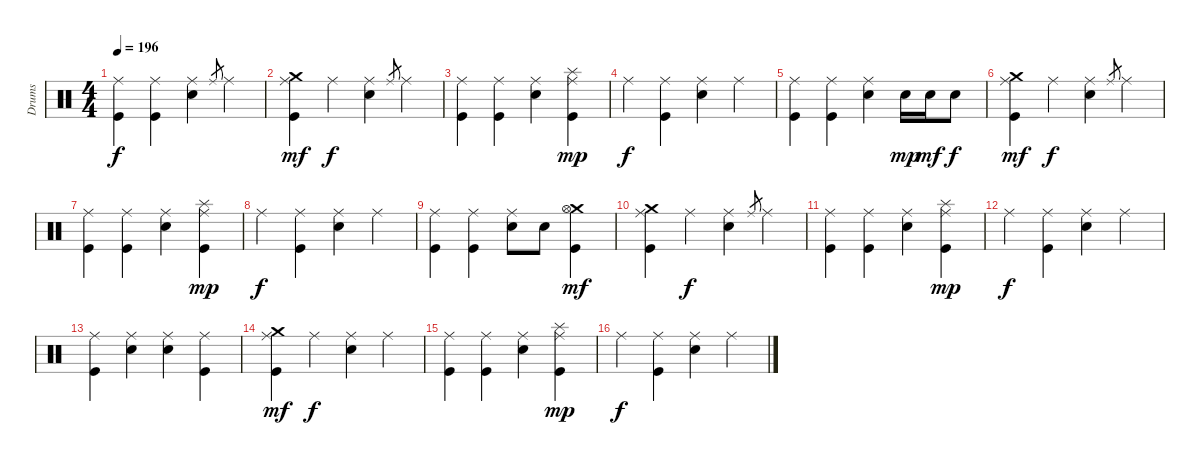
\track ("Drums" "Drums") {instrument percussion}
\staff {score}
\articulation defaults
\ts (4 4)
\tempo 196
\clef neutral
\ks c
("Ride (middle)" "Kick (hit)").4{dy f} ("Ride (middle)" "Kick (hit)").4 ("Ride (middle)" "Electric Snare (hit)").4 "Ride (middle)".8{gr} "Ride (middle)".4 |
("Crash medium (hit)" "Ride (middle)" "Kick (hit)").4{dy mf} "Ride (middle)".4{dy f} ("Ride (middle)" "Electric Snare (hit)").4 "Ride (middle)".8{gr} "Ride (middle)".4 |
("Ride (middle)" "Kick (hit)").4 ("Ride (middle)" "Kick (hit)").4 ("Ride (middle)" "Electric Snare (hit)").4 ("Splash (hit)" "Ride (middle)" "Kick (hit)").4{dy mp} |
"Ride (middle)".4{dy f} ("Ride (middle)" "Kick (hit)").4 ("Ride (middle)" "Electric Snare (hit)").4 "Ride (middle)".4 |
("Ride (middle)" "Kick (hit)").4 ("Ride (middle)" "Kick (hit)").4 ("Ride (middle)" "Electric Snare (hit)").4 "Electric Snare (hit)".16{dy mp} "Electric Snare (hit)".16{dy mf} "Electric Snare (hit)".8{dy f} |
("Crash medium (hit)" "Ride (middle)" "Kick (hit)").4{dy mf} "Ride (middle)".4{dy f} ("Ride (middle)" "Electric Snare (hit)").4 "Ride (middle)".8{gr} "Ride (middle)".4 |
("Ride (middle)" "Kick (hit)").4 ("Ride (middle)" "Kick (hit)").4 ("Ride (middle)" "Electric Snare (hit)").4 ("Splash (hit)" "Ride (middle)" "Kick (hit)").4{dy mp} |
"Ride (middle)".4{dy f} ("Ride (middle)" "Kick (hit)").4 ("Ride (middle)" "Electric Snare (hit)").4 "Ride (middle)".4 |
("Ride (middle)" "Kick (hit)").4 ("Ride (middle)" "Kick (hit)").4 ("Ride (middle)" "Electric Snare (hit)").8 "Electric Snare (hit)".8 ("Crash medium (hit)" "Hi-Hat (open)" "Kick (hit)").4{dy mf} |
("Crash medium (hit)" "Ride (middle)" "Kick (hit)").4 "Ride (middle)".4{dy f} ("Ride (middle)" "Electric Snare (hit)").4 "Ride (middle)".8{gr} "Ride (middle)".4 |
("Ride (middle)" "Kick (hit)").4 ("Ride (middle)" "Kick (hit)").4 ("Ride (middle)" "Electric Snare (hit)").4 ("Splash (hit)" "Ride (middle)" "Kick (hit)").4{dy mp} |
"Ride (middle)".4{dy f} ("Ride (middle)" "Kick (hit)").4 ("Ride (middle)" "Electric Snare (hit)").4 "Ride (middle)".4 |
("Ride (middle)" "Kick (hit)").4 ("Ride (middle)" "Electric Snare (hit)").4 ("Ride (middle)" "Electric Snare (hit)").4 ("Ride (middle)" "Kick (hit)").4 |
("Crash medium (hit)" "Ride (middle)" "Kick (hit)").4{dy mf} "Ride (middle)".4{dy f} ("Ride (middle)" "Electric Snare (hit)").4 "Ride (middle)".4 |
("Ride (middle)" "Kick (hit)").4 ("Ride (middle)" "Kick (hit)").4 ("Ride (middle)" "Electric Snare (hit)").4 ("Splash (hit)" "Ride (middle)" "Kick (hit)").4{dy mp} |
"Ride (middle)".4{dy f} ("Ride (middle)" "Kick (hit)").4 ("Ride (middle)" "Electric Snare (hit)").4 "Ride (middle)".4
